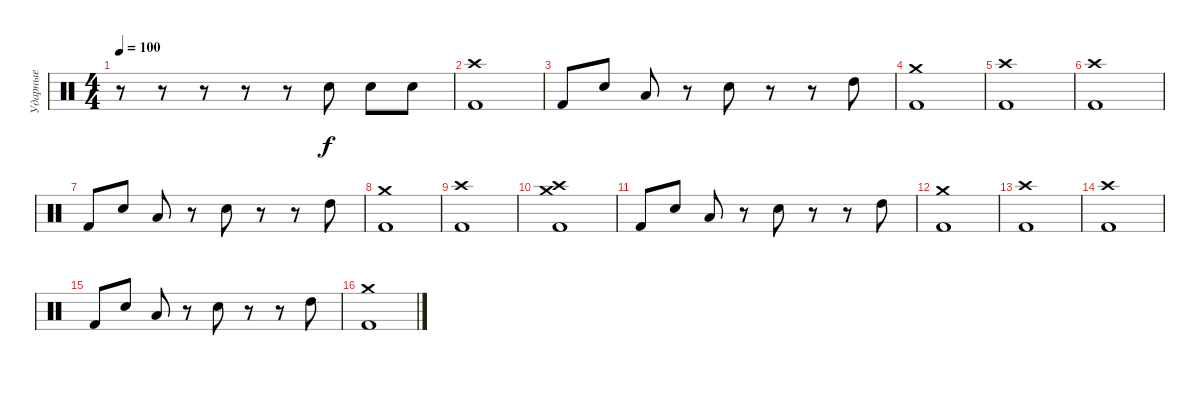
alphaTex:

\track ("Ударные" "Ударные") {instrument percussion}
\staff {score}
\articulation defaults
\ts (4 4)
\tempo 100
\clef neutral
\ks c
r.8{dy f} r.8 r.8 r.8 r.8 "Electric Snare (hit)".8 "Electric Snare (hit)".8 "Electric Snare (hit)".8 |
("Kick (hit) 2" "Crash high (hit)").1 |
"Kick (hit) 2".8 "Electric Snare (hit)".8 "Low Tom (hit)".8 r.8 "Electric Snare (hit)".8 r.8 r.8 "High Tom (hit)".8 |
("Kick (hit) 2" "Crash medium (hit)").1 |
("Kick (hit) 2" "Crash high (hit)").1 |
("Kick (hit) 2" "Crash high (hit)").1 |
"Kick (hit) 2".8 "Electric Snare (hit)".8 "Low Tom (hit)".8 r.8 "Electric Snare (hit)".8 r.8 r.8 "High Tom (hit)".8 |
("Kick (hit) 2" "Crash medium (hit)").1 |
("Kick (hit) 2" "Crash high (hit)").1 |
("Kick (hit) 2" "Crash high (hit)" "Crash medium (hit)").1 |
"Kick (hit) 2".8 "Electric Snare (hit)".8 "Low Tom (hit)".8 r.8 "Electric Snare (hit)".8 r.8 r.8 "High Tom (hit)".8 |
("Kick (hit) 2" "Crash medium (hit)").1 |
("Kick (hit) 2" "Crash high (hit)").1 |
("Kick (hit) 2" "Crash high (hit)").1 |
"Kick (hit) 2".8 "Electric Snare (hit)".8 "Low Tom (hit)".8 r.8 "Electric Snare (hit)".8 r.8 r.8 "High Tom (hit)".8 |
("Kick (hit) 2" "Crash medium (hit)").1
